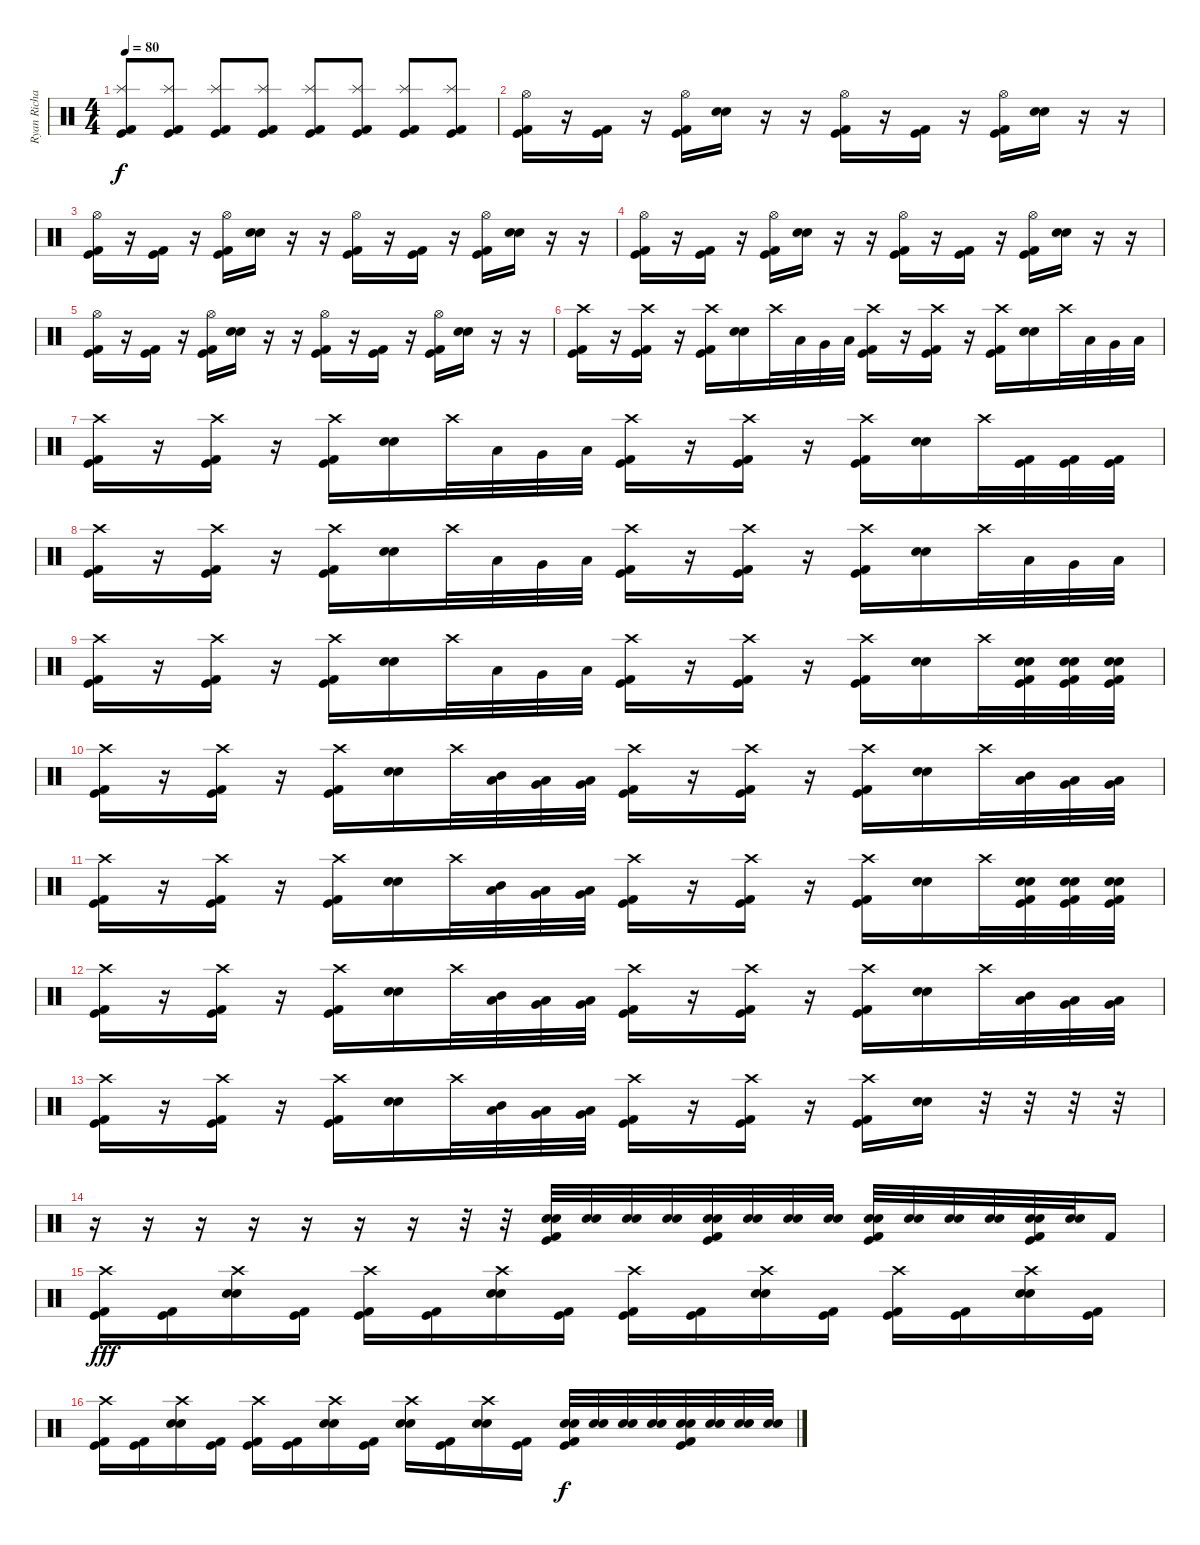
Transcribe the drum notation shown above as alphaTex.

\track ("Ryan Richards" "Ryan Richa") {instrument percussion}
\staff {score}
\articulation defaults
\ts (4 4)
\tempo 80
\clef neutral
\ks c
("Kick (hit)" "Splash (hit)" "Kick (hit) 2").8{dy f} ("Kick (hit)" "Splash (hit)" "Kick (hit) 2").8 ("Kick (hit)" "Splash (hit)" "Kick (hit) 2").8 ("Kick (hit)" "Splash (hit)" "Kick (hit) 2").8 ("Kick (hit)" "Splash (hit)" "Kick (hit) 2").8 ("Kick (hit)" "Splash (hit)" "Kick (hit) 2").8 ("Kick (hit)" "Splash (hit)" "Kick (hit) 2").8 ("Kick (hit)" "Splash (hit)" "Kick (hit) 2").8 |
("Kick (hit)" "Hi-Hat (open)" "Kick (hit) 2").16 r.16 ("Kick (hit)" "Kick (hit) 2").16 r.16 ("Kick (hit)" "Hi-Hat (open)" "Kick (hit) 2").16 ("Snare (hit) 2" "Electric Snare (hit)").16 r.16 r.16 ("Kick (hit)" "Hi-Hat (open)" "Kick (hit) 2").16 r.16 ("Kick (hit)" "Kick (hit) 2").16 r.16 ("Kick (hit)" "Hi-Hat (open)" "Kick (hit) 2").16 ("Snare (hit) 2" "Electric Snare (hit)").16 r.16 r.16 |
("Kick (hit)" "Hi-Hat (open)" "Kick (hit) 2").16 r.16 ("Kick (hit)" "Kick (hit) 2").16 r.16 ("Kick (hit)" "Hi-Hat (open)" "Kick (hit) 2").16 ("Snare (hit) 2" "Electric Snare (hit)").16 r.16 r.16 ("Kick (hit)" "Hi-Hat (open)" "Kick (hit) 2").16 r.16 ("Kick (hit)" "Kick (hit) 2").16 r.16 ("Kick (hit)" "Hi-Hat (open)" "Kick (hit) 2").16 ("Snare (hit) 2" "Electric Snare (hit)").16 r.16 r.16 |
("Kick (hit)" "Hi-Hat (open)" "Kick (hit) 2").16 r.16 ("Kick (hit)" "Kick (hit) 2").16 r.16 ("Kick (hit)" "Hi-Hat (open)" "Kick (hit) 2").16 ("Snare (hit) 2" "Electric Snare (hit)").16 r.16 r.16 ("Kick (hit)" "Hi-Hat (open)" "Kick (hit) 2").16 r.16 ("Kick (hit)" "Kick (hit) 2").16 r.16 ("Kick (hit)" "Hi-Hat (open)" "Kick (hit) 2").16 ("Snare (hit) 2" "Electric Snare (hit)").16 r.16 r.16 |
("Kick (hit)" "Hi-Hat (open)" "Kick (hit) 2").16 r.16 ("Kick (hit)" "Kick (hit) 2").16 r.16 ("Kick (hit)" "Hi-Hat (open)" "Kick (hit) 2").16 ("Snare (hit) 2" "Electric Snare (hit)").16 r.16 r.16 ("Kick (hit)" "Hi-Hat (open)" "Kick (hit) 2").16 r.16 ("Kick (hit)" "Kick (hit) 2").16 r.16 ("Kick (hit)" "Hi-Hat (open)" "Kick (hit) 2").16 ("Snare (hit) 2" "Electric Snare (hit)").16 r.16 r.16 |
("Kick (hit)" "Crash high (hit)" "Kick (hit) 2").16 r.16 ("Kick (hit)" "Crash high (hit)" "Kick (hit) 2").16 r.16 ("Kick (hit)" "Crash high (hit)" "Kick (hit) 2").16 ("Snare (hit) 2" "Electric Snare (hit)").16 "Crash high (hit)".32 "Low Tom (hit)".32 "Very Low Tom (hit)".32 "Low Floor Tom (hit)".32 ("Kick (hit)" "Crash high (hit)" "Kick (hit) 2").16 r.16 ("Kick (hit)" "Crash high (hit)" "Kick (hit) 2").16 r.16 ("Kick (hit)" "Crash high (hit)" "Kick (hit) 2").16 ("Snare (hit) 2" "Electric Snare (hit)").16 "Crash high (hit)".32 "Low Tom (hit)".32 "Very Low Tom (hit)".32 "Low Floor Tom (hit)".32 |
("Kick (hit)" "Crash high (hit)" "Kick (hit) 2").16 r.16 ("Kick (hit)" "Crash high (hit)" "Kick (hit) 2").16 r.16 ("Kick (hit)" "Crash high (hit)" "Kick (hit) 2").16 ("Snare (hit) 2" "Electric Snare (hit)").16 "Crash high (hit)".32 "Low Tom (hit)".32 "Very Low Tom (hit)".32 "Low Floor Tom (hit)".32 ("Kick (hit)" "Crash high (hit)" "Kick (hit) 2").16 r.16 ("Kick (hit)" "Crash high (hit)" "Kick (hit) 2").16 r.16 ("Kick (hit)" "Crash high (hit)" "Kick (hit) 2").16 ("Snare (hit) 2" "Electric Snare (hit)").16 "Crash high (hit)".32 ("Kick (hit)" "Kick (hit) 2").32 ("Kick (hit)" "Kick (hit) 2").32 ("Kick (hit)" "Kick (hit) 2").32 |
("Kick (hit)" "Crash high (hit)" "Kick (hit) 2").16 r.16 ("Kick (hit)" "Crash high (hit)" "Kick (hit) 2").16 r.16 ("Kick (hit)" "Crash high (hit)" "Kick (hit) 2").16 ("Snare (hit) 2" "Electric Snare (hit)").16 "Crash high (hit)".32 "Low Tom (hit)".32 "Very Low Tom (hit)".32 "Low Floor Tom (hit)".32 ("Kick (hit)" "Crash high (hit)" "Kick (hit) 2").16 r.16 ("Kick (hit)" "Crash high (hit)" "Kick (hit) 2").16 r.16 ("Kick (hit)" "Crash high (hit)" "Kick (hit) 2").16 ("Snare (hit) 2" "Electric Snare (hit)").16 "Crash high (hit)".32 "Low Tom (hit)".32 "Very Low Tom (hit)".32 "Low Floor Tom (hit)".32 |
("Kick (hit)" "Crash high (hit)" "Kick (hit) 2").16 r.16 ("Kick (hit)" "Crash high (hit)" "Kick (hit) 2").16 r.16 ("Kick (hit)" "Crash high (hit)" "Kick (hit) 2").16 ("Snare (hit) 2" "Electric Snare (hit)").16 "Crash high (hit)".32 "Low Tom (hit)".32 "Very Low Tom (hit)".32 "Low Floor Tom (hit)".32 ("Kick (hit)" "Crash high (hit)" "Kick (hit) 2").16 r.16 ("Kick (hit)" "Crash high (hit)" "Kick (hit) 2").16 r.16 ("Kick (hit)" "Crash high (hit)" "Kick (hit) 2").16 ("Snare (hit) 2" "Electric Snare (hit)").16 "Crash high (hit)".32 ("Kick (hit)" "Snare (hit) 2" "Electric Snare (hit)" "Kick (hit) 2").32 ("Kick (hit)" "Snare (hit) 2" "Electric Snare (hit)" "Kick (hit) 2").32 ("Kick (hit)" "Snare (hit) 2" "Electric Snare (hit)" "Kick (hit) 2").32 |
("Kick (hit)" "Crash high (hit)" "Kick (hit) 2").16 r.16 ("Kick (hit)" "Crash high (hit)" "Kick (hit) 2").16 r.16 ("Kick (hit)" "Crash high (hit)" "Kick (hit) 2").16 ("Snare (hit) 2" "Electric Snare (hit)").16 "Crash high (hit)".32 ("Mid Tom (hit)" "Low Tom (hit)").32 ("Low Tom (hit)" "Very Low Tom (hit)").32 ("Very Low Tom (hit)" "Low Floor Tom (hit)").32 ("Kick (hit)" "Crash high (hit)" "Kick (hit) 2").16 r.16 ("Kick (hit)" "Crash high (hit)" "Kick (hit) 2").16 r.16 ("Kick (hit)" "Crash high (hit)" "Kick (hit) 2").16 ("Snare (hit) 2" "Electric Snare (hit)").16 "Crash high (hit)".32 ("Mid Tom (hit)" "Low Tom (hit)").32 ("Low Tom (hit)" "Very Low Tom (hit)").32 ("Very Low Tom (hit)" "Low Floor Tom (hit)").32 |
("Kick (hit)" "Crash high (hit)" "Kick (hit) 2").16 r.16 ("Kick (hit)" "Crash high (hit)" "Kick (hit) 2").16 r.16 ("Kick (hit)" "Crash high (hit)" "Kick (hit) 2").16 ("Snare (hit) 2" "Electric Snare (hit)").16 "Crash high (hit)".32 ("Mid Tom (hit)" "Low Tom (hit)").32 ("Low Tom (hit)" "Very Low Tom (hit)").32 ("Very Low Tom (hit)" "Low Floor Tom (hit)").32 ("Kick (hit)" "Crash high (hit)" "Kick (hit) 2").16 r.16 ("Kick (hit)" "Crash high (hit)" "Kick (hit) 2").16 r.16 ("Kick (hit)" "Crash high (hit)" "Kick (hit) 2").16 ("Snare (hit) 2" "Electric Snare (hit)").16 "Crash high (hit)".32 ("Kick (hit)" "Snare (hit) 2" "Electric Snare (hit)" "Kick (hit) 2").32 ("Kick (hit)" "Snare (hit) 2" "Electric Snare (hit)" "Kick (hit) 2").32 ("Kick (hit)" "Snare (hit) 2" "Electric Snare (hit)" "Kick (hit) 2").32 |
("Kick (hit)" "Crash high (hit)" "Kick (hit) 2").16 r.16 ("Kick (hit)" "Crash high (hit)" "Kick (hit) 2").16 r.16 ("Kick (hit)" "Crash high (hit)" "Kick (hit) 2").16 ("Snare (hit) 2" "Electric Snare (hit)").16 "Crash high (hit)".32 ("Mid Tom (hit)" "Low Tom (hit)").32 ("Low Tom (hit)" "Very Low Tom (hit)").32 ("Very Low Tom (hit)" "Low Floor Tom (hit)").32 ("Kick (hit)" "Crash high (hit)" "Kick (hit) 2").16 r.16 ("Kick (hit)" "Crash high (hit)" "Kick (hit) 2").16 r.16 ("Kick (hit)" "Crash high (hit)" "Kick (hit) 2").16 ("Snare (hit) 2" "Electric Snare (hit)").16 "Crash high (hit)".32 ("Mid Tom (hit)" "Low Tom (hit)").32 ("Low Tom (hit)" "Very Low Tom (hit)").32 ("Very Low Tom (hit)" "Low Floor Tom (hit)").32 |
("Kick (hit)" "Crash high (hit)" "Kick (hit) 2").16 r.16 ("Kick (hit)" "Crash high (hit)" "Kick (hit) 2").16 r.16 ("Kick (hit)" "Crash high (hit)" "Kick (hit) 2").16 ("Snare (hit) 2" "Electric Snare (hit)").16 "Crash high (hit)".32 ("Mid Tom (hit)" "Low Tom (hit)").32 ("Low Tom (hit)" "Very Low Tom (hit)").32 ("Very Low Tom (hit)" "Low Floor Tom (hit)").32 ("Kick (hit)" "Crash high (hit)" "Kick (hit) 2").16 r.16 ("Kick (hit)" "Crash high (hit)" "Kick (hit) 2").16 r.16 ("Kick (hit)" "Crash high (hit)" "Kick (hit) 2").16 ("Snare (hit) 2" "Electric Snare (hit)").16 r.32 r.32 r.32 r.32 |
r.16 r.16 r.16 r.16 r.16 r.16 r.16 r.32 r.32 ("Kick (hit)" "Snare (hit) 2" "Electric Snare (hit)" "Kick (hit) 2").32 ("Snare (hit) 2" "Electric Snare (hit)").32 ("Snare (hit) 2" "Electric Snare (hit)").32 ("Snare (hit) 2" "Electric Snare (hit)").32 ("Kick (hit)" "Snare (hit) 2" "Electric Snare (hit)" "Kick (hit) 2").32 ("Snare (hit) 2" "Electric Snare (hit)").32 ("Snare (hit) 2" "Electric Snare (hit)").32 ("Snare (hit) 2" "Electric Snare (hit)").32 ("Kick (hit)" "Snare (hit) 2" "Electric Snare (hit)" "Kick (hit) 2").32 ("Snare (hit) 2" "Electric Snare (hit)").32 ("Snare (hit) 2" "Electric Snare (hit)").32 ("Snare (hit) 2" "Electric Snare (hit)").32 ("Kick (hit)" "Snare (hit) 2" "Electric Snare (hit)" "Kick (hit) 2").32 ("Snare (hit) 2" "Electric Snare (hit)").32 "Kick (hit) 2".16 |
("Kick (hit)" "Crash high (hit)" "Kick (hit) 2").16{dy fff} ("Kick (hit)" "Kick (hit) 2").16 ("Crash high (hit)" "Snare (hit) 2" "Electric Snare (hit)").16 ("Kick (hit)" "Kick (hit) 2").16 ("Kick (hit)" "Crash high (hit)" "Kick (hit) 2").16 ("Kick (hit)" "Kick (hit) 2").16 ("Crash high (hit)" "Snare (hit) 2" "Electric Snare (hit)").16 ("Kick (hit)" "Kick (hit) 2").16 ("Kick (hit)" "Crash high (hit)" "Kick (hit) 2").16 ("Kick (hit)" "Kick (hit) 2").16 ("Crash high (hit)" "Snare (hit) 2" "Electric Snare (hit)").16 ("Kick (hit)" "Kick (hit) 2").16 ("Kick (hit)" "Crash high (hit)" "Kick (hit) 2").16 ("Kick (hit)" "Kick (hit) 2").16 ("Crash high (hit)" "Snare (hit) 2" "Electric Snare (hit)").16 ("Kick (hit)" "Kick (hit) 2").16 |
("Kick (hit)" "Crash high (hit)" "Kick (hit) 2").16 ("Kick (hit)" "Kick (hit) 2").16 ("Crash high (hit)" "Snare (hit) 2" "Electric Snare (hit)").16 ("Kick (hit)" "Kick (hit) 2").16 ("Kick (hit)" "Crash high (hit)" "Kick (hit) 2").16 ("Kick (hit)" "Kick (hit) 2").16 ("Crash high (hit)" "Snare (hit) 2" "Electric Snare (hit)").16 ("Kick (hit)" "Kick (hit) 2").16 ("Crash high (hit)" "Snare (hit) 2" "Electric Snare (hit)").16 ("Kick (hit)" "Kick (hit) 2").16 ("Crash high (hit)" "Snare (hit) 2" "Electric Snare (hit)").16 ("Kick (hit)" "Kick (hit) 2").16 ("Kick (hit)" "Snare (hit) 2" "Electric Snare (hit)" "Kick (hit) 2").32{dy f} ("Snare (hit) 2" "Electric Snare (hit)").32 ("Snare (hit) 2" "Electric Snare (hit)").32 ("Snare (hit) 2" "Electric Snare (hit)").32 ("Kick (hit)" "Snare (hit) 2" "Electric Snare (hit)" "Kick (hit) 2").32 ("Snare (hit) 2" "Electric Snare (hit)").32 ("Snare (hit) 2" "Electric Snare (hit)").32 ("Snare (hit) 2" "Electric Snare (hit)").32
